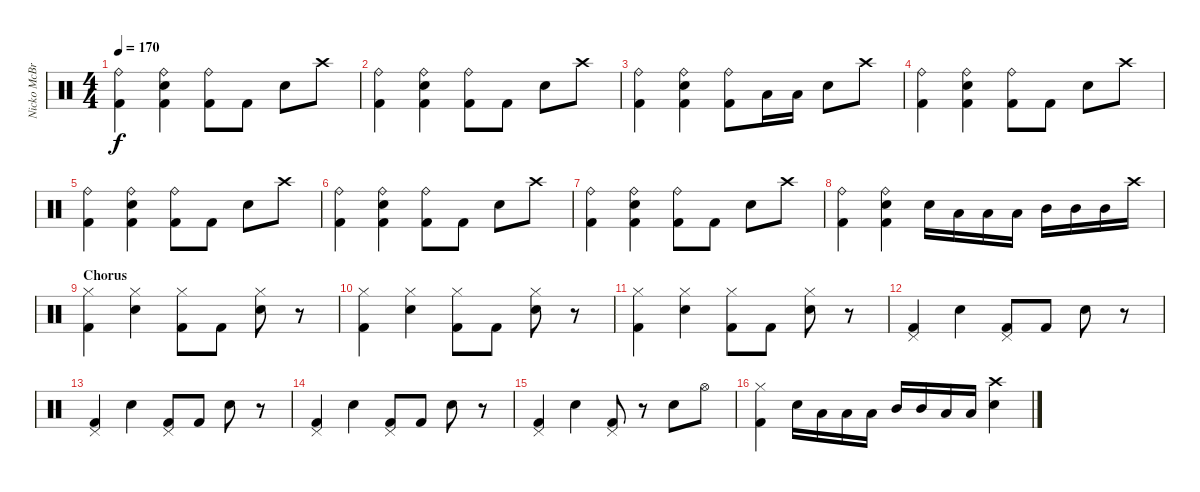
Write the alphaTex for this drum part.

\track ("Nicko McBrain" "Nicko McBr") {instrument percussion}
\staff {score}
\articulation defaults
\ts (4 4)
\tempo 170
\clef neutral
\ks c
("Ride (bell)" "Kick (hit) 2").4{dy f} ("Ride (bell)" "Snare (hit) 2" "Kick (hit) 2").4 ("Ride (bell)" "Kick (hit) 2").8 "Kick (hit) 2".8 "Snare (hit) 2".8 "Crash high (hit)".8 |
("Ride (bell)" "Kick (hit) 2").4 ("Ride (bell)" "Snare (hit) 2" "Kick (hit) 2").4 ("Ride (bell)" "Kick (hit) 2").8 "Kick (hit) 2".8 "Snare (hit) 2".8 "Crash high (hit)".8 |
("Ride (bell)" "Kick (hit) 2").4 ("Ride (bell)" "Snare (hit) 2" "Kick (hit) 2").4 ("Ride (bell)" "Kick (hit) 2").8 "Low Tom (hit)".16 "Low Tom (hit)".16 "Snare (hit) 2".8 "Crash high (hit)".8 |
("Ride (bell)" "Kick (hit) 2").4 ("Ride (bell)" "Snare (hit) 2" "Kick (hit) 2").4 ("Ride (bell)" "Kick (hit) 2").8 "Kick (hit) 2".8 "Snare (hit) 2".8 "Crash high (hit)".8 |
("Ride (bell)" "Kick (hit) 2").4 ("Ride (bell)" "Snare (hit) 2" "Kick (hit) 2").4 ("Ride (bell)" "Kick (hit) 2").8 "Kick (hit) 2".8 "Snare (hit) 2".8 "Crash high (hit)".8 |
("Ride (bell)" "Kick (hit) 2").4 ("Ride (bell)" "Snare (hit) 2" "Kick (hit) 2").4 ("Ride (bell)" "Kick (hit) 2").8 "Kick (hit) 2".8 "Snare (hit) 2".8 "Crash high (hit)".8 |
("Ride (bell)" "Kick (hit) 2").4 ("Ride (bell)" "Snare (hit) 2" "Kick (hit) 2").4 ("Ride (bell)" "Kick (hit) 2").8 "Kick (hit) 2".8 "Snare (hit) 2".8 "Crash high (hit)".8 |
("Ride (bell)" "Kick (hit) 2").4 ("Ride (bell)" "Snare (hit) 2" "Kick (hit) 2").4 "Snare (hit) 2".16 "Low Tom (hit)".16 "Low Tom (hit)".16 "Low Tom (hit)".16 "Mid Tom (hit)".16 "Mid Tom (hit)".16 "Mid Tom (hit)".16 "Crash high (hit)".16 |
\section ("" "Chorus")
("Hi-Hat (closed)" "Kick (hit) 2").4 ("Hi-Hat (closed)" "Snare (hit) 2").4 ("Hi-Hat (closed)" "Kick (hit) 2").8 "Kick (hit) 2".8 ("Hi-Hat (closed)" "Snare (hit) 2").8 r.8 |
("Hi-Hat (closed)" "Kick (hit) 2").4 ("Hi-Hat (closed)" "Snare (hit) 2").4 ("Hi-Hat (closed)" "Kick (hit) 2").8 "Kick (hit) 2".8 ("Hi-Hat (closed)" "Snare (hit) 2").8 r.8 |
("Hi-Hat (closed)" "Kick (hit) 2").4 ("Hi-Hat (closed)" "Snare (hit) 2").4 ("Hi-Hat (closed)" "Kick (hit) 2").8 "Kick (hit) 2".8 ("Hi-Hat (closed)" "Snare (hit) 2").8 r.8 |
("Pedal Hi-Hat (hit)" "Kick (hit) 2").4 "Snare (hit) 2".4 ("Pedal Hi-Hat (hit)" "Kick (hit) 2").8 "Kick (hit) 2".8 "Snare (hit) 2".8 r.8 |
("Pedal Hi-Hat (hit)" "Kick (hit) 2").4 "Snare (hit) 2".4 ("Pedal Hi-Hat (hit)" "Kick (hit) 2").8 "Kick (hit) 2".8 "Snare (hit) 2".8 r.8 |
("Pedal Hi-Hat (hit)" "Kick (hit) 2").4 "Snare (hit) 2".4 ("Pedal Hi-Hat (hit)" "Kick (hit) 2").8 "Kick (hit) 2".8 "Snare (hit) 2".8 r.8 |
("Pedal Hi-Hat (hit)" "Kick (hit) 2").4 "Snare (hit) 2".4 ("Pedal Hi-Hat (hit)" "Kick (hit) 2").8 r.8 "Snare (hit) 2".8 "Hi-Hat (open)".8 |
("Hi-Hat (closed)" "Kick (hit) 2").4 "Snare (hit) 2".16 "Low Tom (hit)".16 "Low Tom (hit)".16 "Low Tom (hit)".16 "Mid Tom (hit)".16 "Mid Tom (hit)".16 "Low Tom (hit)".16 "Low Tom (hit)".16 ("Crash high (hit)" "Snare (hit) 2").4
